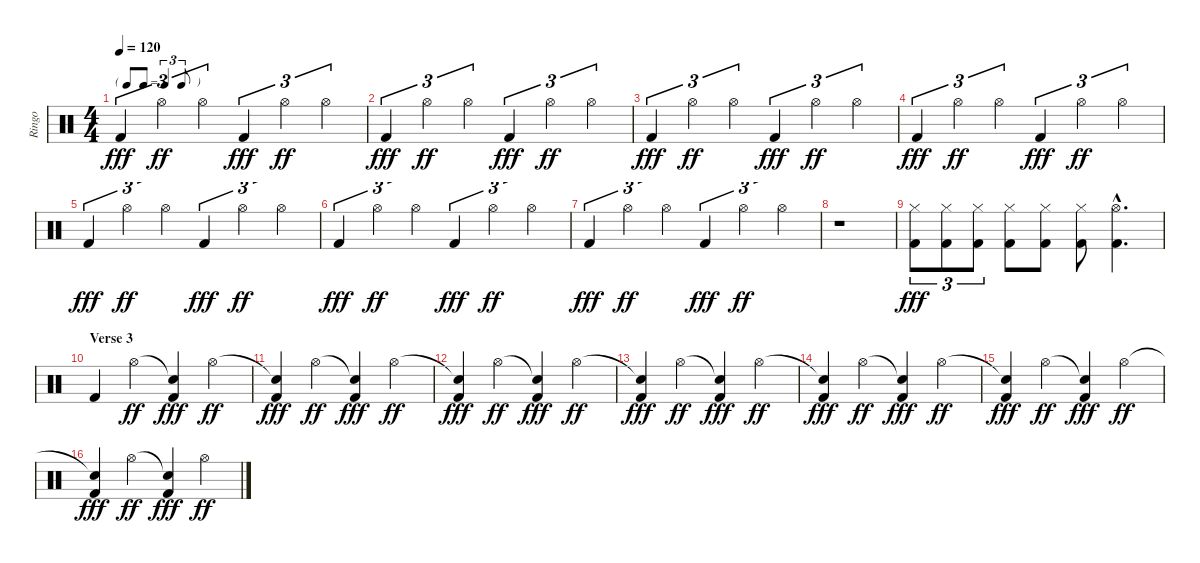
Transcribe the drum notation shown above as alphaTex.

\track ("Ringo" "Ringo") {instrument percussion}
\staff {score}
\articulation defaults
\ts (4 4)
\tf triplet8th
\tempo 120
\clef neutral
\ks c "Kick (hit) 2".4{tu (3 2) dy fff} "Hi-Hat (open)".4{tu (3 2) dy ff} "Hi-Hat (open)".4{tu (3 2)} "Kick (hit) 2".4{tu (3 2) dy fff} "Hi-Hat (open)".4{tu (3 2) dy ff} "Hi-Hat (open)".4{tu (3 2)}
|
"Kick (hit) 2".4{tu (3 2) dy fff} "Hi-Hat (open)".4{tu (3 2) dy ff} "Hi-Hat (open)".4{tu (3 2)} "Kick (hit) 2".4{tu (3 2) dy fff} "Hi-Hat (open)".4{tu (3 2) dy ff} "Hi-Hat (open)".4{tu (3 2)} |
"Kick (hit) 2".4{tu (3 2) dy fff} "Hi-Hat (open)".4{tu (3 2) dy ff} "Hi-Hat (open)".4{tu (3 2)} "Kick (hit) 2".4{tu (3 2) dy fff} "Hi-Hat (open)".4{tu (3 2) dy ff} "Hi-Hat (open)".4{tu (3 2)} |
"Kick (hit) 2".4{tu (3 2) dy fff} "Hi-Hat (open)".4{tu (3 2) dy ff} "Hi-Hat (open)".4{tu (3 2)} "Kick (hit) 2".4{tu (3 2) dy fff} "Hi-Hat (open)".4{tu (3 2) dy ff} "Hi-Hat (open)".4{tu (3 2)} |
"Kick (hit) 2".4{tu (3 2) dy fff} "Hi-Hat (open)".4{tu (3 2) dy ff} "Hi-Hat (open)".4{tu (3 2)} "Kick (hit) 2".4{tu (3 2) dy fff} "Hi-Hat (open)".4{tu (3 2) dy ff} "Hi-Hat (open)".4{tu (3 2)} |
"Kick (hit) 2".4{tu (3 2) dy fff} "Hi-Hat (open)".4{tu (3 2) dy ff} "Hi-Hat (open)".4{tu (3 2)} "Kick (hit) 2".4{tu (3 2) dy fff} "Hi-Hat (open)".4{tu (3 2) dy ff} "Hi-Hat (open)".4{tu (3 2)} |
"Kick (hit) 2".4{tu (3 2) dy fff} "Hi-Hat (open)".4{tu (3 2) dy ff} "Hi-Hat (open)".4{tu (3 2)} "Kick (hit) 2".4{tu (3 2) dy fff} "Hi-Hat (open)".4{tu (3 2) dy ff} "Hi-Hat (open)".4{tu (3 2)} |
r.1 |
("Hi-Hat (closed)" "Kick (hit) 2").8{tu (3 2) dy fff} ("Hi-Hat (closed)" "Kick (hit) 2").8{tu (3 2)} ("Hi-Hat (closed)" "Kick (hit) 2").8{tu (3 2)} ("Hi-Hat (closed)" "Kick (hit) 2").8 ("Hi-Hat (closed)" "Kick (hit) 2").8 ("Hi-Hat (closed)" "Kick (hit) 2").8 ("Hi-Hat (open)"{hac} "Kick (hit) 2"{hac}).4{d} |
\section ("" "Verse 3")
"Kick (hit) 2".4 "Hi-Hat (open)".4{dy ff} ("Snare (hit)"{t} "Kick (hit) 2").4{dy fff} "Hi-Hat (open)".4{dy ff} |
("Snare (hit)"{t} "Kick (hit) 2").4{dy fff} "Hi-Hat (open)".4{dy ff} ("Snare (hit)"{t} "Kick (hit) 2").4{dy fff} "Hi-Hat (open)".4{dy ff} |
("Snare (hit)"{t} "Kick (hit) 2").4{dy fff} "Hi-Hat (open)".4{dy ff} ("Snare (hit)"{t} "Kick (hit) 2").4{dy fff} "Hi-Hat (open)".4{dy ff} |
("Snare (hit)"{t} "Kick (hit) 2").4{dy fff} "Hi-Hat (open)".4{dy ff} ("Snare (hit)"{t} "Kick (hit) 2").4{dy fff} "Hi-Hat (open)".4{dy ff} |
("Snare (hit)"{t} "Kick (hit) 2").4{dy fff} "Hi-Hat (open)".4{dy ff} ("Snare (hit)"{t} "Kick (hit) 2").4{dy fff} "Hi-Hat (open)".4{dy ff} |
("Snare (hit)"{t} "Kick (hit) 2").4{dy fff} "Hi-Hat (open)".4{dy ff} ("Snare (hit)"{t} "Kick (hit) 2").4{dy fff} "Hi-Hat (open)".4{dy ff} |
("Snare (hit)"{t} "Kick (hit) 2").4{dy fff} "Hi-Hat (open)".4{dy ff} ("Snare (hit)"{t} "Kick (hit) 2").4{dy fff} "Hi-Hat (open)".4{dy ff}
